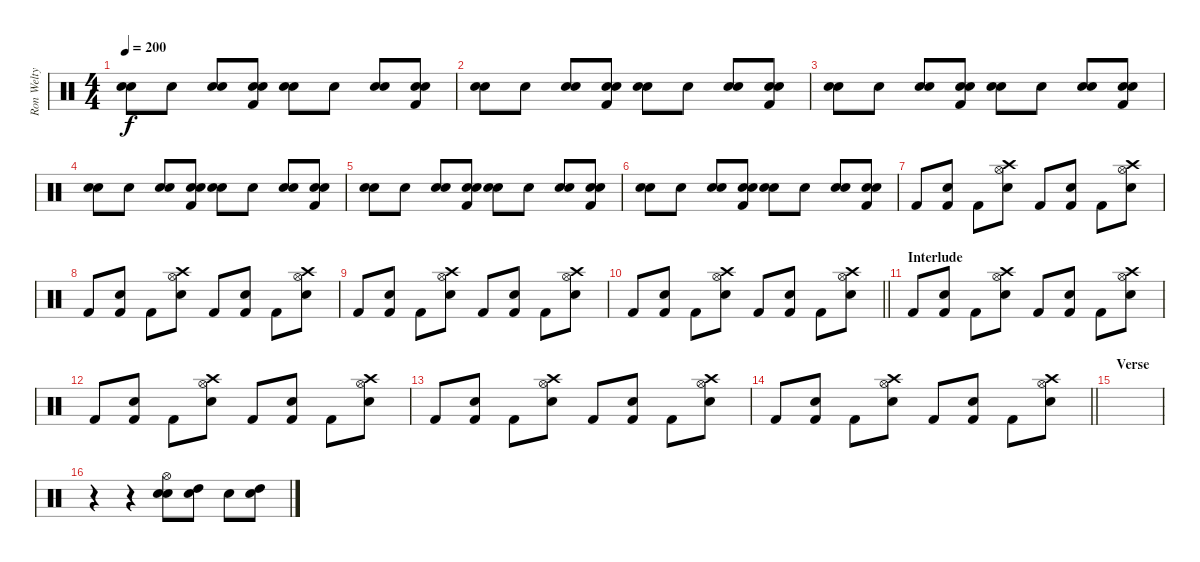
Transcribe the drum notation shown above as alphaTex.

\track ("Ron Welty" "Ron Welty") {instrument percussion}
\staff {score}
\articulation defaults
\ts (4 4)
\tempo 200
\clef neutral
\ks c
("Electric Snare (hit)" "Snare (hit) 2").8{dy f} "Electric Snare (hit)".8 ("Electric Snare (hit)" "Snare (hit) 2").8 ("Kick (hit) 2" "Snare (hit) 2" "Electric Snare (hit)").8 ("Electric Snare (hit)" "Snare (hit) 2").8 "Electric Snare (hit)".8 ("Electric Snare (hit)" "Snare (hit) 2").8 ("Kick (hit) 2" "Snare (hit) 2" "Electric Snare (hit)").8 |
("Electric Snare (hit)" "Snare (hit) 2").8 "Electric Snare (hit)".8 ("Electric Snare (hit)" "Snare (hit) 2").8 ("Kick (hit) 2" "Snare (hit) 2" "Electric Snare (hit)").8 ("Electric Snare (hit)" "Snare (hit) 2").8 "Electric Snare (hit)".8 ("Electric Snare (hit)" "Snare (hit) 2").8 ("Kick (hit) 2" "Snare (hit) 2" "Electric Snare (hit)").8 |
("Electric Snare (hit)" "Snare (hit) 2").8 "Electric Snare (hit)".8 ("Electric Snare (hit)" "Snare (hit) 2").8 ("Kick (hit) 2" "Snare (hit) 2" "Electric Snare (hit)").8 ("Electric Snare (hit)" "Snare (hit) 2").8 "Electric Snare (hit)".8 ("Electric Snare (hit)" "Snare (hit) 2").8 ("Kick (hit) 2" "Snare (hit) 2" "Electric Snare (hit)").8 |
("Electric Snare (hit)" "Snare (hit) 2").8 "Electric Snare (hit)".8 ("Electric Snare (hit)" "Snare (hit) 2").8 ("Kick (hit) 2" "Snare (hit) 2" "Electric Snare (hit)").8 ("Electric Snare (hit)" "Snare (hit) 2").8 "Electric Snare (hit)".8 ("Electric Snare (hit)" "Snare (hit) 2").8 ("Kick (hit) 2" "Snare (hit) 2" "Electric Snare (hit)").8 |
("Electric Snare (hit)" "Snare (hit) 2").8 "Electric Snare (hit)".8 ("Electric Snare (hit)" "Snare (hit) 2").8 ("Kick (hit) 2" "Snare (hit) 2" "Electric Snare (hit)").8 ("Electric Snare (hit)" "Snare (hit) 2").8 "Electric Snare (hit)".8 ("Electric Snare (hit)" "Snare (hit) 2").8 ("Kick (hit) 2" "Snare (hit) 2" "Electric Snare (hit)").8 |
("Electric Snare (hit)" "Snare (hit) 2").8 "Electric Snare (hit)".8 ("Electric Snare (hit)" "Snare (hit) 2").8 ("Kick (hit) 2" "Snare (hit) 2" "Electric Snare (hit)").8 ("Electric Snare (hit)" "Snare (hit) 2").8 "Electric Snare (hit)".8 ("Electric Snare (hit)" "Snare (hit) 2").8 ("Kick (hit) 2" "Snare (hit) 2" "Electric Snare (hit)").8 |
"Kick (hit) 2".8 ("Kick (hit) 2" "Electric Snare (hit)").8 "Kick (hit) 2".8 ("Snare (hit) 2" "Hi-Hat (open)" "Crash high (hit)").8 "Kick (hit) 2".8 ("Kick (hit) 2" "Electric Snare (hit)").8 "Kick (hit) 2".8 ("Snare (hit) 2" "Hi-Hat (open)" "Crash high (hit)").8 |
"Kick (hit) 2".8 ("Kick (hit) 2" "Electric Snare (hit)").8 "Kick (hit) 2".8 ("Snare (hit) 2" "Hi-Hat (open)" "Crash high (hit)").8 "Kick (hit) 2".8 ("Kick (hit) 2" "Electric Snare (hit)").8 "Kick (hit) 2".8 ("Snare (hit) 2" "Hi-Hat (open)" "Crash high (hit)").8 |
"Kick (hit) 2".8 ("Kick (hit) 2" "Electric Snare (hit)").8 "Kick (hit) 2".8 ("Snare (hit) 2" "Hi-Hat (open)" "Crash high (hit)").8 "Kick (hit) 2".8 ("Kick (hit) 2" "Electric Snare (hit)").8 "Kick (hit) 2".8 ("Snare (hit) 2" "Hi-Hat (open)" "Crash high (hit)").8 |
\barLineRight lightlight "Kick (hit) 2".8
("Kick (hit) 2" "Electric Snare (hit)").8 "Kick (hit) 2".8 ("Snare (hit) 2" "Hi-Hat (open)" "Crash high (hit)").8 "Kick (hit) 2".8 ("Kick (hit) 2" "Electric Snare (hit)").8 "Kick (hit) 2".8 ("Snare (hit) 2" "Hi-Hat (open)" "Crash high (hit)").8 |
\section ("" "Interlude")
"Kick (hit) 2".8 ("Kick (hit) 2" "Electric Snare (hit)").8 "Kick (hit) 2".8 ("Snare (hit) 2" "Hi-Hat (open)" "Crash high (hit)").8 "Kick (hit) 2".8 ("Kick (hit) 2" "Electric Snare (hit)").8 "Kick (hit) 2".8 ("Snare (hit) 2" "Hi-Hat (open)" "Crash high (hit)").8 |
"Kick (hit) 2".8 ("Kick (hit) 2" "Electric Snare (hit)").8 "Kick (hit) 2".8 ("Snare (hit) 2" "Hi-Hat (open)" "Crash high (hit)").8 "Kick (hit) 2".8 ("Kick (hit) 2" "Electric Snare (hit)").8 "Kick (hit) 2".8 ("Snare (hit) 2" "Hi-Hat (open)" "Crash high (hit)").8 |
"Kick (hit) 2".8 ("Kick (hit) 2" "Electric Snare (hit)").8 "Kick (hit) 2".8 ("Snare (hit) 2" "Hi-Hat (open)" "Crash high (hit)").8 "Kick (hit) 2".8 ("Kick (hit) 2" "Electric Snare (hit)").8 "Kick (hit) 2".8 ("Snare (hit) 2" "Hi-Hat (open)" "Crash high (hit)").8 |
\barLineRight lightlight "Kick (hit) 2".8
("Kick (hit) 2" "Electric Snare (hit)").8 "Kick (hit) 2".8 ("Snare (hit) 2" "Hi-Hat (open)" "Crash high (hit)").8 "Kick (hit) 2".8 ("Kick (hit) 2" "Electric Snare (hit)").8 "Kick (hit) 2".8 ("Snare (hit) 2" "Hi-Hat (open)" "Crash high (hit)").8 |
\section ("" "Verse")
|
r.4 r.4 ("Electric Snare (hit)" "Snare (hit) 2" "Hi-Hat (open)").8 ("Snare (hit) 2" "High Tom (hit)").8 "Snare (hit) 2".8 ("Snare (hit) 2" "High Tom (hit)").8
